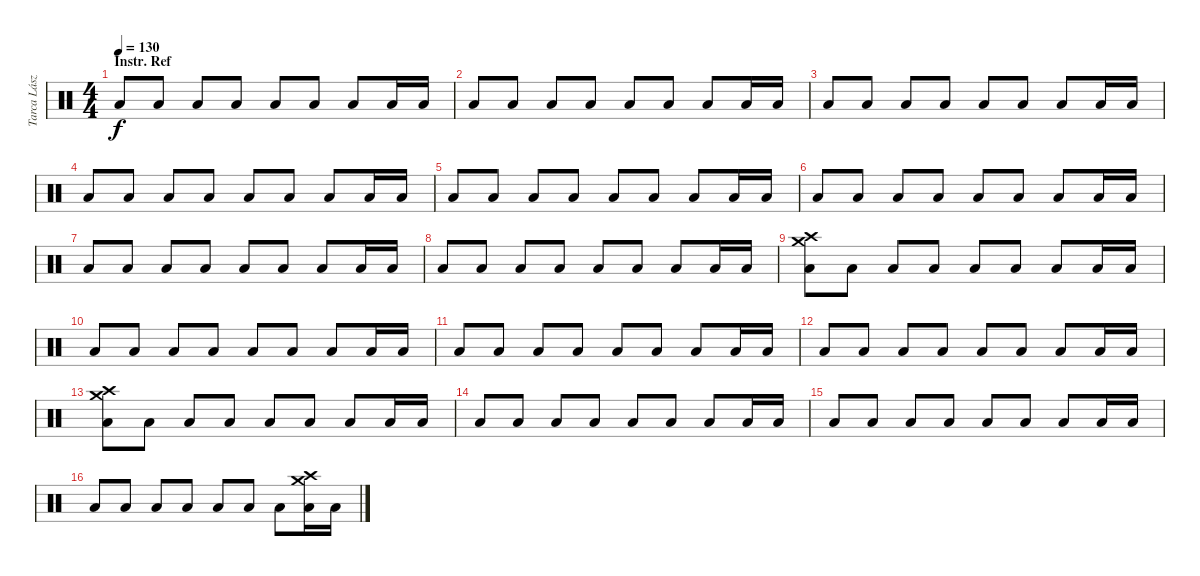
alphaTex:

\track ("Tarca László" "Tarca Lász") {instrument percussion}
\staff {score}
\articulation defaults
\ts (4 4)
\section ("" "Instr. Ref")
\tempo 130
\clef neutral
\ks c "Low Tom (hit)".8{dy f} "Low Tom (hit)".8 "Low Tom (hit)".8 "Low Tom (hit)".8 "Low Tom (hit)".8 "Low Tom (hit)".8 "Low Tom (hit)".8 "Low Tom (hit)".16 "Low Tom (hit)".16
|
"Low Tom (hit)".8 "Low Tom (hit)".8 "Low Tom (hit)".8 "Low Tom (hit)".8 "Low Tom (hit)".8 "Low Tom (hit)".8 "Low Tom (hit)".8 "Low Tom (hit)".16 "Low Tom (hit)".16 |
"Low Tom (hit)".8 "Low Tom (hit)".8 "Low Tom (hit)".8 "Low Tom (hit)".8 "Low Tom (hit)".8 "Low Tom (hit)".8 "Low Tom (hit)".8 "Low Tom (hit)".16 "Low Tom (hit)".16 |
"Low Tom (hit)".8 "Low Tom (hit)".8 "Low Tom (hit)".8 "Low Tom (hit)".8 "Low Tom (hit)".8 "Low Tom (hit)".8 "Low Tom (hit)".8 "Low Tom (hit)".16 "Low Tom (hit)".16 |
"Low Tom (hit)".8 "Low Tom (hit)".8 "Low Tom (hit)".8 "Low Tom (hit)".8 "Low Tom (hit)".8 "Low Tom (hit)".8 "Low Tom (hit)".8 "Low Tom (hit)".16 "Low Tom (hit)".16 |
"Low Tom (hit)".8 "Low Tom (hit)".8 "Low Tom (hit)".8 "Low Tom (hit)".8 "Low Tom (hit)".8 "Low Tom (hit)".8 "Low Tom (hit)".8 "Low Tom (hit)".16 "Low Tom (hit)".16 |
"Low Tom (hit)".8 "Low Tom (hit)".8 "Low Tom (hit)".8 "Low Tom (hit)".8 "Low Tom (hit)".8 "Low Tom (hit)".8 "Low Tom (hit)".8 "Low Tom (hit)".16 "Low Tom (hit)".16 |
"Low Tom (hit)".8 "Low Tom (hit)".8 "Low Tom (hit)".8 "Low Tom (hit)".8 "Low Tom (hit)".8 "Low Tom (hit)".8 "Low Tom (hit)".8 "Low Tom (hit)".16 "Low Tom (hit)".16 |
("Crash high (hit)" "Crash medium (hit)" "Low Tom (hit)").8 "Low Tom (hit)".8 "Low Tom (hit)".8 "Low Tom (hit)".8 "Low Tom (hit)".8 "Low Tom (hit)".8 "Low Tom (hit)".8 "Low Tom (hit)".16 "Low Tom (hit)".16 |
"Low Tom (hit)".8 "Low Tom (hit)".8 "Low Tom (hit)".8 "Low Tom (hit)".8 "Low Tom (hit)".8 "Low Tom (hit)".8 "Low Tom (hit)".8 "Low Tom (hit)".16 "Low Tom (hit)".16 |
"Low Tom (hit)".8 "Low Tom (hit)".8 "Low Tom (hit)".8 "Low Tom (hit)".8 "Low Tom (hit)".8 "Low Tom (hit)".8 "Low Tom (hit)".8 "Low Tom (hit)".16 "Low Tom (hit)".16 |
"Low Tom (hit)".8 "Low Tom (hit)".8 "Low Tom (hit)".8 "Low Tom (hit)".8 "Low Tom (hit)".8 "Low Tom (hit)".8 "Low Tom (hit)".8 "Low Tom (hit)".16 "Low Tom (hit)".16 |
("Crash high (hit)" "Crash medium (hit)" "Low Tom (hit)").8 "Low Tom (hit)".8 "Low Tom (hit)".8 "Low Tom (hit)".8 "Low Tom (hit)".8 "Low Tom (hit)".8 "Low Tom (hit)".8 "Low Tom (hit)".16 "Low Tom (hit)".16 |
"Low Tom (hit)".8 "Low Tom (hit)".8 "Low Tom (hit)".8 "Low Tom (hit)".8 "Low Tom (hit)".8 "Low Tom (hit)".8 "Low Tom (hit)".8 "Low Tom (hit)".16 "Low Tom (hit)".16 |
"Low Tom (hit)".8 "Low Tom (hit)".8 "Low Tom (hit)".8 "Low Tom (hit)".8 "Low Tom (hit)".8 "Low Tom (hit)".8 "Low Tom (hit)".8 "Low Tom (hit)".16 "Low Tom (hit)".16 |
"Low Tom (hit)".8 "Low Tom (hit)".8 "Low Tom (hit)".8 "Low Tom (hit)".8 "Low Tom (hit)".8 "Low Tom (hit)".8 "Low Tom (hit)".8 ("Crash high (hit)" "Crash medium (hit)" "Low Tom (hit)").16 "Low Tom (hit)".16
